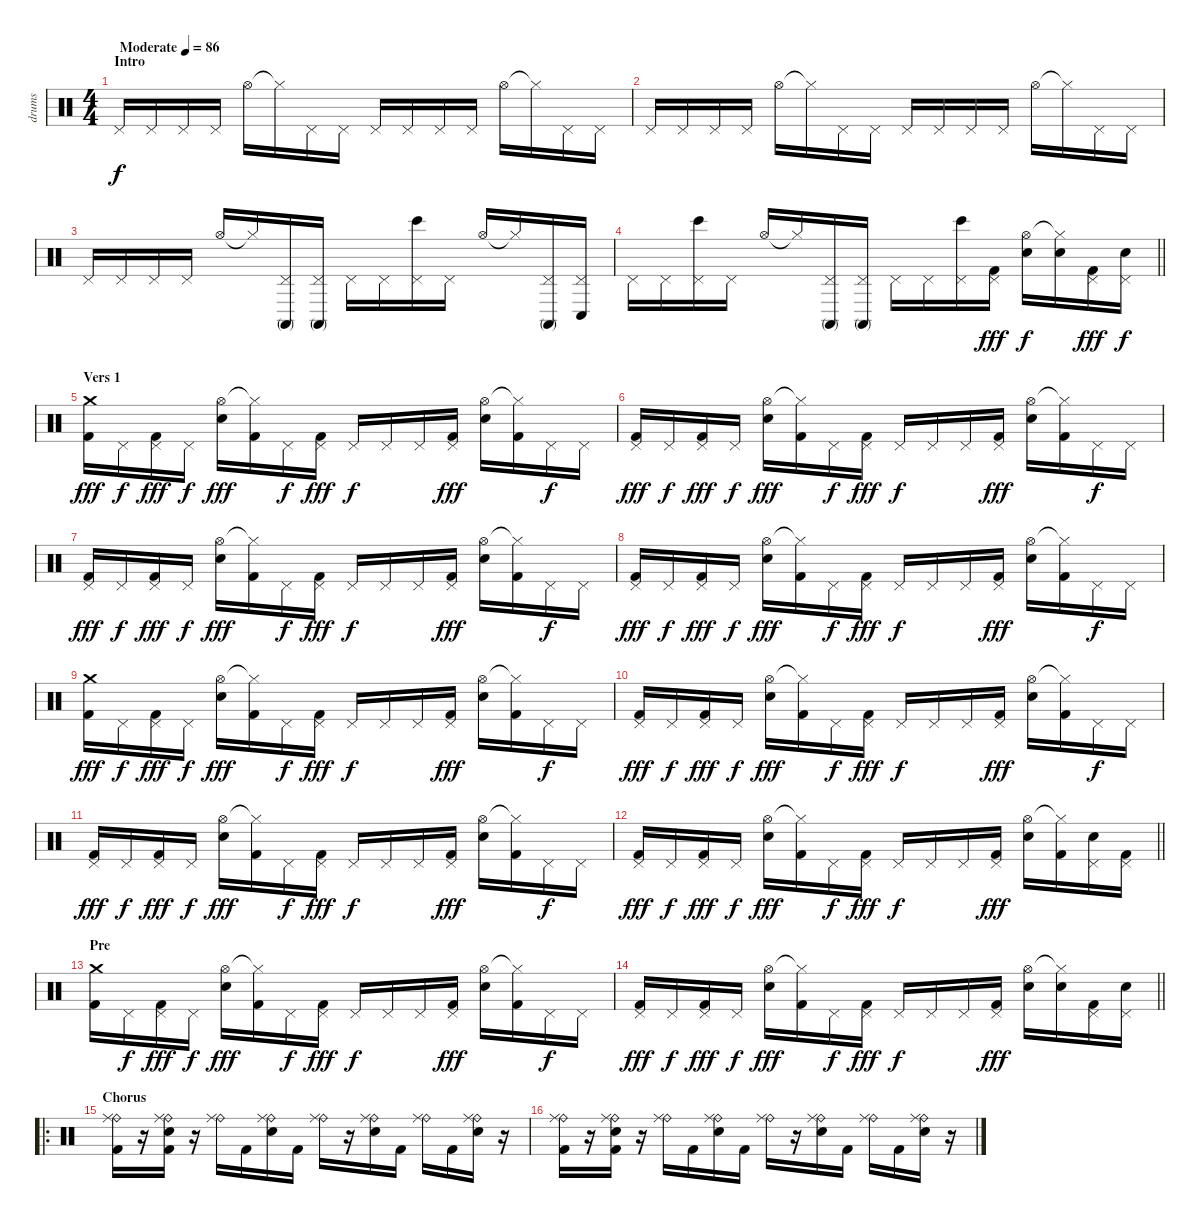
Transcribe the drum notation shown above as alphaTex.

\track ("drums" "drums") {instrument percussion}
\staff {score}
\articulation defaults
\ts (4 4)
\section ("" "Intro")
\tempo (86 "Moderate")
\clef neutral
\ks c "Pedal Hi-Hat (hit)".16{dy f} "Pedal Hi-Hat (hit)".16 "Pedal Hi-Hat (hit)".16 "Pedal Hi-Hat (hit)".16 "Hi-Hat (open)".16 "Hi-Hat (closed)"{t}.16 "Pedal Hi-Hat (hit)".16 "Pedal Hi-Hat (hit)".16 "Pedal Hi-Hat (hit)".16 "Pedal Hi-Hat (hit)".16 "Pedal Hi-Hat (hit)".16 "Pedal Hi-Hat (hit)".16 "Hi-Hat (open)".16 "Hi-Hat (closed)"{t}.16 "Pedal Hi-Hat (hit)".16 "Pedal Hi-Hat (hit)".16
|
"Pedal Hi-Hat (hit)".16 "Pedal Hi-Hat (hit)".16 "Pedal Hi-Hat (hit)".16 "Pedal Hi-Hat (hit)".16 "Hi-Hat (open)".16 "Hi-Hat (closed)"{t}.16 "Pedal Hi-Hat (hit)".16 "Pedal Hi-Hat (hit)".16 "Pedal Hi-Hat (hit)".16 "Pedal Hi-Hat (hit)".16 "Pedal Hi-Hat (hit)".16 "Pedal Hi-Hat (hit)".16 "Hi-Hat (open)".16 "Hi-Hat (closed)"{t}.16 "Pedal Hi-Hat (hit)".16 "Pedal Hi-Hat (hit)".16 |
"Pedal Hi-Hat (hit)".16 "Pedal Hi-Hat (hit)".16 "Pedal Hi-Hat (hit)".16 "Pedal Hi-Hat (hit)".16 "Hi-Hat (open)".16 "Hi-Hat (closed)"{t}.16 ("Pedal Hi-Hat (hit)" "Conga high (mute)").16 ("Pedal Hi-Hat (hit)" "Conga high (mute)").16 "Pedal Hi-Hat (hit)".16 "Pedal Hi-Hat (hit)".16 ("Pedal Hi-Hat (hit)" "Bongo High (hit)").16 "Pedal Hi-Hat (hit)".16 "Hi-Hat (open)".16 "Hi-Hat (closed)"{t}.16 ("Pedal Hi-Hat (hit)" "Conga high (mute)").16 ("Pedal Hi-Hat (hit)" "Conga low (hit)").16 |
\barLineRight lightlight "Pedal Hi-Hat (hit)".16 "Pedal Hi-Hat (hit)".16
("Pedal Hi-Hat (hit)" "Bongo High (hit)").16 "Pedal Hi-Hat (hit)".16 "Hi-Hat (open)".16 "Hi-Hat (closed)"{t}.16 ("Pedal Hi-Hat (hit)" "Conga high (mute)").16 ("Pedal Hi-Hat (hit)" "Conga high (mute)").16 "Pedal Hi-Hat (hit)".16 "Pedal Hi-Hat (hit)".16 ("Pedal Hi-Hat (hit)" "Bongo High (hit)").16 ("Pedal Hi-Hat (hit)" "Kick (hit) 2").16{dy fff} ("Hi-Hat (open)" "Electric Snare (hit)").16{dy f} ("Hi-Hat (closed)"{t} "Electric Snare (hit)").16 ("Pedal Hi-Hat (hit)" "Kick (hit) 2").16{dy fff} ("Pedal Hi-Hat (hit)" "Electric Snare (hit)").16{dy f} |
\section ("" "Vers 1")
("Crash medium (hit)" "Kick (hit) 2").16{dy fff} "Pedal Hi-Hat (hit)".16{dy f} ("Pedal Hi-Hat (hit)" "Kick (hit) 2").16{dy fff} "Pedal Hi-Hat (hit)".16{dy f} ("Hi-Hat (open)" "Electric Snare (hit)").16{dy fff} ("Hi-Hat (closed)"{t} "Kick (hit) 2").16 "Pedal Hi-Hat (hit)".16{dy f} ("Pedal Hi-Hat (hit)" "Kick (hit) 2").16{dy fff} "Pedal Hi-Hat (hit)".16{dy f} "Pedal Hi-Hat (hit)".16 "Pedal Hi-Hat (hit)".16 ("Pedal Hi-Hat (hit)" "Kick (hit) 2").16{dy fff} ("Hi-Hat (open)" "Electric Snare (hit)").16 ("Hi-Hat (closed)"{t} "Kick (hit) 2").16 "Pedal Hi-Hat (hit)".16{dy f} "Pedal Hi-Hat (hit)".16 |
("Pedal Hi-Hat (hit)" "Kick (hit) 2").16{dy fff} "Pedal Hi-Hat (hit)".16{dy f} ("Pedal Hi-Hat (hit)" "Kick (hit) 2").16{dy fff} "Pedal Hi-Hat (hit)".16{dy f} ("Hi-Hat (open)" "Electric Snare (hit)").16{dy fff} ("Hi-Hat (closed)"{t} "Kick (hit) 2").16 "Pedal Hi-Hat (hit)".16{dy f} ("Pedal Hi-Hat (hit)" "Kick (hit) 2").16{dy fff} "Pedal Hi-Hat (hit)".16{dy f} "Pedal Hi-Hat (hit)".16 "Pedal Hi-Hat (hit)".16 ("Pedal Hi-Hat (hit)" "Kick (hit) 2").16{dy fff} ("Hi-Hat (open)" "Electric Snare (hit)").16 ("Hi-Hat (closed)"{t} "Kick (hit) 2").16 "Pedal Hi-Hat (hit)".16{dy f} "Pedal Hi-Hat (hit)".16 |
("Pedal Hi-Hat (hit)" "Kick (hit) 2").16{dy fff} "Pedal Hi-Hat (hit)".16{dy f} ("Pedal Hi-Hat (hit)" "Kick (hit) 2").16{dy fff} "Pedal Hi-Hat (hit)".16{dy f} ("Hi-Hat (open)" "Electric Snare (hit)").16{dy fff} ("Hi-Hat (closed)"{t} "Kick (hit) 2").16 "Pedal Hi-Hat (hit)".16{dy f} ("Pedal Hi-Hat (hit)" "Kick (hit) 2").16{dy fff} "Pedal Hi-Hat (hit)".16{dy f} "Pedal Hi-Hat (hit)".16 "Pedal Hi-Hat (hit)".16 ("Pedal Hi-Hat (hit)" "Kick (hit) 2").16{dy fff} ("Hi-Hat (open)" "Electric Snare (hit)").16 ("Hi-Hat (closed)"{t} "Kick (hit) 2").16 "Pedal Hi-Hat (hit)".16{dy f} "Pedal Hi-Hat (hit)".16 |
("Pedal Hi-Hat (hit)" "Kick (hit) 2").16{dy fff} "Pedal Hi-Hat (hit)".16{dy f} ("Pedal Hi-Hat (hit)" "Kick (hit) 2").16{dy fff} "Pedal Hi-Hat (hit)".16{dy f} ("Hi-Hat (open)" "Electric Snare (hit)").16{dy fff} ("Hi-Hat (closed)"{t} "Kick (hit) 2").16 "Pedal Hi-Hat (hit)".16{dy f} ("Pedal Hi-Hat (hit)" "Kick (hit) 2").16{dy fff} "Pedal Hi-Hat (hit)".16{dy f} "Pedal Hi-Hat (hit)".16 "Pedal Hi-Hat (hit)".16 ("Pedal Hi-Hat (hit)" "Kick (hit) 2").16{dy fff} ("Hi-Hat (open)" "Electric Snare (hit)").16 ("Hi-Hat (closed)"{t} "Kick (hit) 2").16 "Pedal Hi-Hat (hit)".16{dy f} "Pedal Hi-Hat (hit)".16 |
("Crash medium (hit)" "Kick (hit) 2").16{dy fff} "Pedal Hi-Hat (hit)".16{dy f} ("Pedal Hi-Hat (hit)" "Kick (hit) 2").16{dy fff} "Pedal Hi-Hat (hit)".16{dy f} ("Hi-Hat (open)" "Electric Snare (hit)").16{dy fff} ("Hi-Hat (closed)"{t} "Kick (hit) 2").16 "Pedal Hi-Hat (hit)".16{dy f} ("Pedal Hi-Hat (hit)" "Kick (hit) 2").16{dy fff} "Pedal Hi-Hat (hit)".16{dy f} "Pedal Hi-Hat (hit)".16 "Pedal Hi-Hat (hit)".16 ("Pedal Hi-Hat (hit)" "Kick (hit) 2").16{dy fff} ("Hi-Hat (open)" "Electric Snare (hit)").16 ("Hi-Hat (closed)"{t} "Kick (hit) 2").16 "Pedal Hi-Hat (hit)".16{dy f} "Pedal Hi-Hat (hit)".16 |
("Pedal Hi-Hat (hit)" "Kick (hit) 2").16{dy fff} "Pedal Hi-Hat (hit)".16{dy f} ("Pedal Hi-Hat (hit)" "Kick (hit) 2").16{dy fff} "Pedal Hi-Hat (hit)".16{dy f} ("Hi-Hat (open)" "Electric Snare (hit)").16{dy fff} ("Hi-Hat (closed)"{t} "Kick (hit) 2").16 "Pedal Hi-Hat (hit)".16{dy f} ("Pedal Hi-Hat (hit)" "Kick (hit) 2").16{dy fff} "Pedal Hi-Hat (hit)".16{dy f} "Pedal Hi-Hat (hit)".16 "Pedal Hi-Hat (hit)".16 ("Pedal Hi-Hat (hit)" "Kick (hit) 2").16{dy fff} ("Hi-Hat (open)" "Electric Snare (hit)").16 ("Hi-Hat (closed)"{t} "Kick (hit) 2").16 "Pedal Hi-Hat (hit)".16{dy f} "Pedal Hi-Hat (hit)".16 |
("Pedal Hi-Hat (hit)" "Kick (hit) 2").16{dy fff} "Pedal Hi-Hat (hit)".16{dy f} ("Pedal Hi-Hat (hit)" "Kick (hit) 2").16{dy fff} "Pedal Hi-Hat (hit)".16{dy f} ("Hi-Hat (open)" "Electric Snare (hit)").16{dy fff} ("Hi-Hat (closed)"{t} "Kick (hit) 2").16 "Pedal Hi-Hat (hit)".16{dy f} ("Pedal Hi-Hat (hit)" "Kick (hit) 2").16{dy fff} "Pedal Hi-Hat (hit)".16{dy f} "Pedal Hi-Hat (hit)".16 "Pedal Hi-Hat (hit)".16 ("Pedal Hi-Hat (hit)" "Kick (hit) 2").16{dy fff} ("Hi-Hat (open)" "Electric Snare (hit)").16 ("Hi-Hat (closed)"{t} "Kick (hit) 2").16 "Pedal Hi-Hat (hit)".16{dy f} "Pedal Hi-Hat (hit)".16 |
\barLineRight lightlight
("Pedal Hi-Hat (hit)" "Kick (hit) 2").16{dy fff} "Pedal Hi-Hat (hit)".16{dy f} ("Pedal Hi-Hat (hit)" "Kick (hit) 2").16{dy fff} "Pedal Hi-Hat (hit)".16{dy f} ("Hi-Hat (open)" "Electric Snare (hit)").16{dy fff} ("Hi-Hat (closed)"{t} "Kick (hit) 2").16 "Pedal Hi-Hat (hit)".16{dy f} ("Pedal Hi-Hat (hit)" "Kick (hit) 2").16{dy fff} "Pedal Hi-Hat (hit)".16{dy f} "Pedal Hi-Hat (hit)".16 "Pedal Hi-Hat (hit)".16 ("Pedal Hi-Hat (hit)" "Kick (hit) 2").16{dy fff} ("Hi-Hat (open)" "Electric Snare (hit)").16 ("Hi-Hat (closed)"{t} "Kick (hit) 2").16 ("Pedal Hi-Hat (hit)" "Electric Snare (hit)").16 ("Pedal Hi-Hat (hit)" "Kick (hit) 2").16 |
\section ("" "Pre")
("Crash medium (hit)" "Kick (hit) 2").16 "Pedal Hi-Hat (hit)".16{dy f} ("Pedal Hi-Hat (hit)" "Kick (hit) 2").16{dy fff} "Pedal Hi-Hat (hit)".16{dy f} ("Hi-Hat (open)" "Electric Snare (hit)").16{dy fff} ("Hi-Hat (closed)"{t} "Kick (hit) 2").16 "Pedal Hi-Hat (hit)".16{dy f} ("Pedal Hi-Hat (hit)" "Kick (hit) 2").16{dy fff} "Pedal Hi-Hat (hit)".16{dy f} "Pedal Hi-Hat (hit)".16 "Pedal Hi-Hat (hit)".16 ("Pedal Hi-Hat (hit)" "Kick (hit) 2").16{dy fff} ("Hi-Hat (open)" "Electric Snare (hit)").16 ("Hi-Hat (closed)"{t} "Kick (hit) 2").16 "Pedal Hi-Hat (hit)".16{dy f} "Pedal Hi-Hat (hit)".16 |
\barLineRight lightlight
("Pedal Hi-Hat (hit)" "Kick (hit) 2").16{dy fff} "Pedal Hi-Hat (hit)".16{dy f} ("Pedal Hi-Hat (hit)" "Kick (hit) 2").16{dy fff} "Pedal Hi-Hat (hit)".16{dy f} ("Hi-Hat (open)" "Electric Snare (hit)").16{dy fff} ("Hi-Hat (closed)"{t} "Kick (hit) 2").16 "Pedal Hi-Hat (hit)".16{dy f} ("Pedal Hi-Hat (hit)" "Kick (hit) 2").16{dy fff} "Pedal Hi-Hat (hit)".16{dy f} "Pedal Hi-Hat (hit)".16 "Pedal Hi-Hat (hit)".16 ("Pedal Hi-Hat (hit)" "Kick (hit) 2").16{dy fff} ("Hi-Hat (open)" "Electric Snare (hit)").16 ("Hi-Hat (closed)"{t} "Electric Snare (hit)").16 ("Pedal Hi-Hat (hit)" "Kick (hit) 2").16 ("Pedal Hi-Hat (hit)" "Electric Snare (hit)").16 |
\ro
\section ("" "Chorus")
("Ride (bell)" "Ride (middle)" "Kick (hit) 2").16 r.16 ("Ride (bell)" "Ride (middle)" "Electric Snare (hit)" "Kick (hit) 2").16 r.16 ("Ride (bell)" "Ride (middle)").16 "Kick (hit) 2".16 ("Ride (bell)" "Ride (middle)" "Electric Snare (hit)").16 "Kick (hit) 2".16 ("Ride (bell)" "Ride (middle)").16 r.16 ("Ride (bell)" "Ride (middle)" "Electric Snare (hit)").16 "Kick (hit) 2".16 ("Ride (bell)" "Ride (middle)").16 "Kick (hit) 2".16 ("Ride (bell)" "Ride (middle)" "Electric Snare (hit)").16 r.16 |
("Ride (bell)" "Ride (middle)" "Kick (hit) 2").16 r.16 ("Ride (bell)" "Ride (middle)" "Electric Snare (hit)" "Kick (hit) 2").16 r.16 ("Ride (bell)" "Ride (middle)").16 "Kick (hit) 2".16 ("Ride (bell)" "Ride (middle)" "Electric Snare (hit)").16 "Kick (hit) 2".16 ("Ride (bell)" "Ride (middle)").16 r.16 ("Ride (bell)" "Ride (middle)" "Electric Snare (hit)").16 "Kick (hit) 2".16 ("Ride (bell)" "Ride (middle)").16 "Kick (hit) 2".16 ("Ride (bell)" "Ride (middle)" "Electric Snare (hit)").16 r.16
